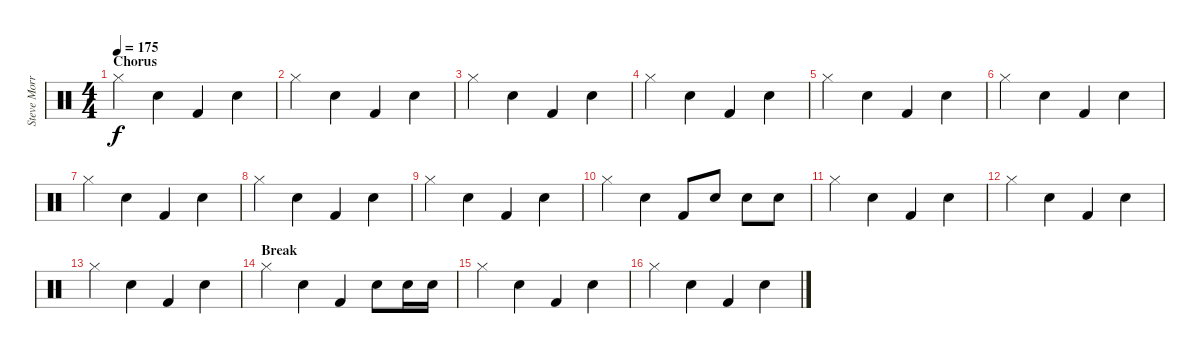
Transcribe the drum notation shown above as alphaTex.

\track ("Steve Morris" "Steve Morr") {instrument percussion}
\staff {score}
\articulation defaults
\ts (4 4)
\section ("" "Chorus")
\tempo 175
\clef neutral
\ks c "Hi-Hat (closed)".4{dy f} "Snare (hit) 2".4 "Kick (hit) 2".4 "Snare (hit) 2".4
|
"Hi-Hat (closed)".4 "Snare (hit) 2".4 "Kick (hit) 2".4 "Snare (hit) 2".4 |
"Hi-Hat (closed)".4 "Snare (hit) 2".4 "Kick (hit) 2".4 "Snare (hit) 2".4 |
"Hi-Hat (closed)".4 "Snare (hit) 2".4 "Kick (hit) 2".4 "Snare (hit) 2".4 |
"Hi-Hat (closed)".4 "Snare (hit) 2".4 "Kick (hit) 2".4 "Snare (hit) 2".4 |
"Hi-Hat (closed)".4 "Snare (hit) 2".4 "Kick (hit) 2".4 "Snare (hit) 2".4 |
"Hi-Hat (closed)".4 "Snare (hit) 2".4 "Kick (hit) 2".4 "Snare (hit) 2".4 |
"Hi-Hat (closed)".4 "Snare (hit) 2".4 "Kick (hit) 2".4 "Snare (hit) 2".4 |
"Hi-Hat (closed)".4 "Snare (hit) 2".4 "Kick (hit) 2".4 "Snare (hit) 2".4 |
"Hi-Hat (closed)".4 "Snare (hit) 2".4 "Kick (hit) 2".8 "Snare (hit) 2".8 "Snare (hit) 2".8 "Snare (hit) 2".8 |
"Hi-Hat (closed)".4 "Snare (hit) 2".4 "Kick (hit) 2".4 "Snare (hit) 2".4 |
"Hi-Hat (closed)".4 "Snare (hit) 2".4 "Kick (hit) 2".4 "Snare (hit) 2".4 |
"Hi-Hat (closed)".4 "Snare (hit) 2".4 "Kick (hit) 2".4 "Snare (hit) 2".4 |
\section ("" "Break")
"Hi-Hat (closed)".4 "Snare (hit) 2".4 "Kick (hit) 2".4 "Snare (hit) 2".8 "Snare (hit) 2".16 "Snare (hit) 2".16 |
"Hi-Hat (closed)".4 "Snare (hit) 2".4 "Kick (hit) 2".4 "Snare (hit) 2".4 |
"Hi-Hat (closed)".4 "Snare (hit) 2".4 "Kick (hit) 2".4 "Snare (hit) 2".4
